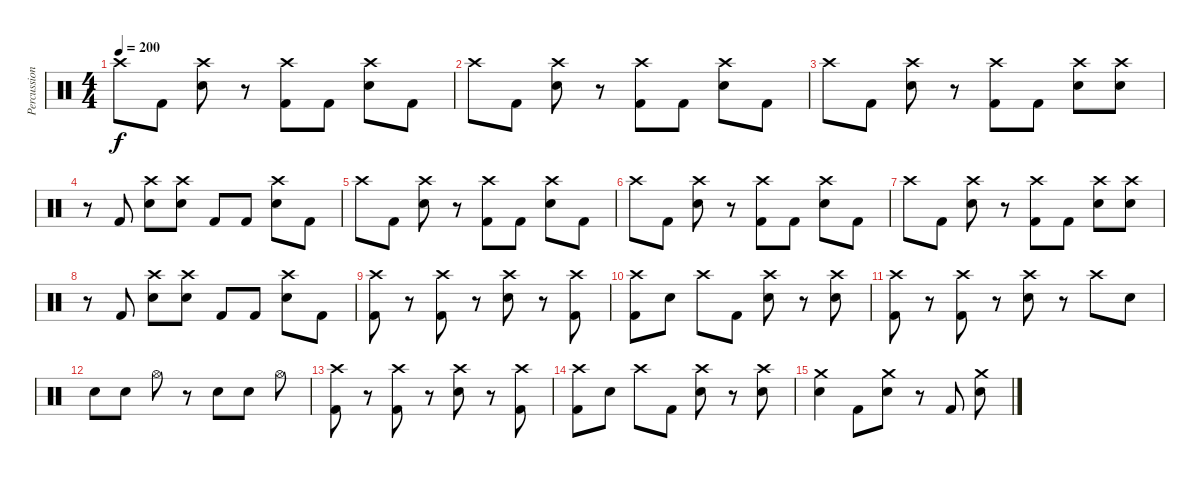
\track ("Percussion" "Percussion") {instrument percussion}
\staff {score}
\articulation defaults
\ts (4 4)
\tempo 200
\clef neutral
\ks c "Crash high (hit)".8{dy f} "Kick (hit) 2".8
("Crash high (hit)" "Electric Snare (hit)").8 r.8 ("Crash high (hit)" "Kick (hit) 2").8 "Kick (hit) 2".8 ("Crash high (hit)" "Electric Snare (hit)").8 "Kick (hit) 2".8 |
"Crash high (hit)".8 "Kick (hit) 2".8 ("Crash high (hit)" "Electric Snare (hit)").8 r.8 ("Crash high (hit)" "Kick (hit) 2").8 "Kick (hit) 2".8 ("Crash high (hit)" "Electric Snare (hit)").8 "Kick (hit) 2".8 |
"Crash high (hit)".8 "Kick (hit) 2".8 ("Crash high (hit)" "Electric Snare (hit)").8 r.8 ("Crash high (hit)" "Kick (hit) 2").8 "Kick (hit) 2".8 ("Crash high (hit)" "Electric Snare (hit)").8 ("Crash high (hit)" "Electric Snare (hit)").8 |
r.8 "Kick (hit) 2".8 ("Crash high (hit)" "Electric Snare (hit)").8 ("Crash high (hit)" "Electric Snare (hit)").8 "Kick (hit) 2".8 "Kick (hit) 2".8 ("Crash high (hit)" "Electric Snare (hit)").8 "Kick (hit) 2".8 |
"Crash high (hit)".8 "Kick (hit) 2".8 ("Crash high (hit)" "Electric Snare (hit)").8 r.8 ("Crash high (hit)" "Kick (hit) 2").8 "Kick (hit) 2".8 ("Crash high (hit)" "Electric Snare (hit)").8 "Kick (hit) 2".8 |
"Crash high (hit)".8 "Kick (hit) 2".8 ("Crash high (hit)" "Electric Snare (hit)").8 r.8 ("Crash high (hit)" "Kick (hit) 2").8 "Kick (hit) 2".8 ("Crash high (hit)" "Electric Snare (hit)").8 "Kick (hit) 2".8 |
"Crash high (hit)".8 "Kick (hit) 2".8 ("Crash high (hit)" "Electric Snare (hit)").8 r.8 ("Crash high (hit)" "Kick (hit) 2").8 "Kick (hit) 2".8 ("Crash high (hit)" "Electric Snare (hit)").8 ("Crash high (hit)" "Electric Snare (hit)").8 |
r.8 "Kick (hit) 2".8 ("Crash high (hit)" "Electric Snare (hit)").8 ("Crash high (hit)" "Electric Snare (hit)").8 "Kick (hit) 2".8 "Kick (hit) 2".8 ("Crash high (hit)" "Electric Snare (hit)").8 "Kick (hit) 2".8 |
("Crash high (hit)" "Kick (hit) 2").8 r.8 ("Crash high (hit)" "Kick (hit) 2").8 r.8 ("Crash high (hit)" "Electric Snare (hit)").8 r.8 ("Crash high (hit)" "Kick (hit) 2").8 |
("Crash high (hit)" "Kick (hit) 2").8 "Electric Snare (hit)".8 "Crash high (hit)".8 "Kick (hit) 2".8 ("Crash high (hit)" "Electric Snare (hit)").8 r.8 ("Crash high (hit)" "Electric Snare (hit)").8 |
("Crash high (hit)" "Kick (hit) 2").8 r.8 ("Crash high (hit)" "Kick (hit) 2").8 r.8 ("Crash high (hit)" "Electric Snare (hit)").8 r.8 "Crash high (hit)".8 "Electric Snare (hit)".8 |
"Electric Snare (hit)".8 "Electric Snare (hit)".8 "Hi-Hat (open)".8 r.8 "Electric Snare (hit)".8 "Electric Snare (hit)".8 "Hi-Hat (open)".8 |
("Crash high (hit)" "Kick (hit) 2").8 r.8 ("Crash high (hit)" "Kick (hit) 2").8 r.8 ("Crash high (hit)" "Electric Snare (hit)").8 r.8 ("Crash high (hit)" "Kick (hit) 2").8 |
("Crash high (hit)" "Kick (hit) 2").8 "Electric Snare (hit)".8 "Crash high (hit)".8 "Kick (hit) 2".8 ("Crash high (hit)" "Electric Snare (hit)").8 r.8 ("Crash high (hit)" "Electric Snare (hit)").8 |
("Crash medium (hit)" "Electric Snare (hit)").4 "Kick (hit) 2".8 ("Crash medium (hit)" "Electric Snare (hit)").8 r.8 "Kick (hit) 2".8 ("Crash medium (hit)" "Electric Snare (hit)").8
